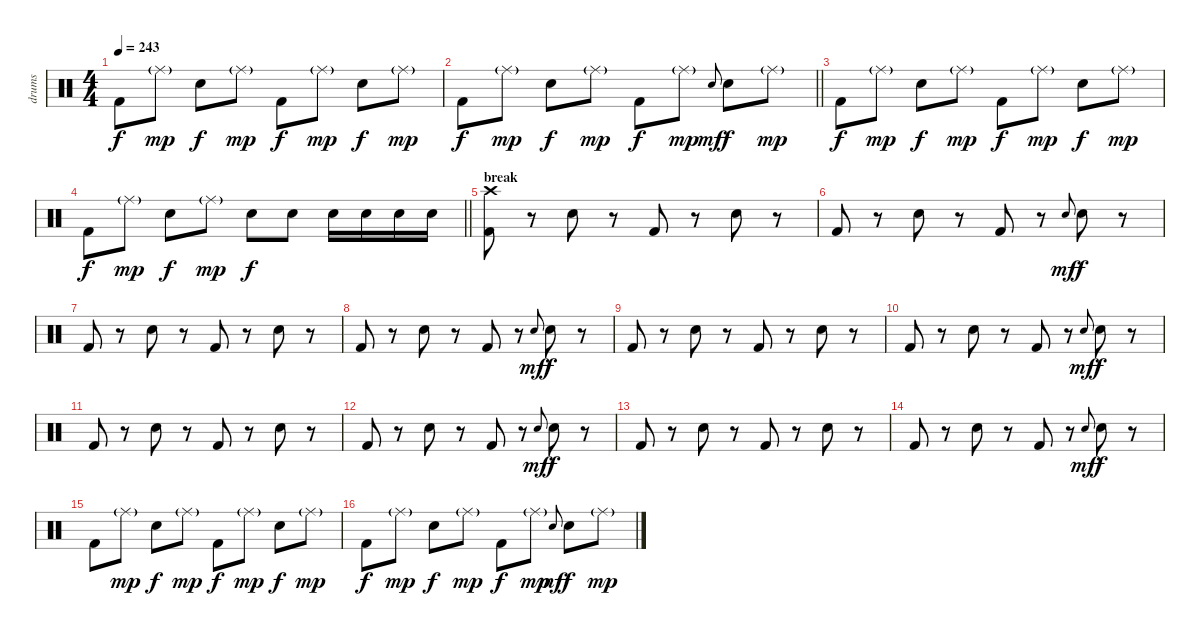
\track ("drums" "drums") {instrument percussion}
\staff {score}
\articulation defaults
\ts (4 4)
\tempo 243
\clef neutral
\ks c "Kick (hit) 2".8{dy f} "Ride (middle)"{g}.8{dy mp} "Electric Snare (hit)".8{dy f} "Ride (middle)"{g}.8{dy mp} "Kick (hit) 2".8{dy f} "Ride (middle)"{g}.8{dy mp} "Electric Snare (hit)".8{dy f} "Ride (middle)"{g}.8{dy mp}
|
\barLineRight lightlight "Kick (hit) 2".8{dy f} "Ride (middle)"{g}.8{dy mp} "Electric Snare (hit)".8{dy f} "Ride (middle)"{g}.8{dy mp} "Kick (hit) 2".8{dy f} "Ride (middle)"{g}.8{dy mp} "Electric Snare (hit)"{x}.8{gr onbeat dy mf} "Electric Snare (hit)".8{dy f} "Ride (middle)"{g}.8{dy mp}
|
"Kick (hit) 2".8{dy f} "Ride (middle)"{g}.8{dy mp} "Electric Snare (hit)".8{dy f} "Ride (middle)"{g}.8{dy mp} "Kick (hit) 2".8{dy f} "Ride (middle)"{g}.8{dy mp} "Electric Snare (hit)".8{dy f} "Ride (middle)"{g}.8{dy mp} |
\barLineRight lightlight "Kick (hit) 2".8{dy f} "Ride (middle)"{g}.8{dy mp} "Electric Snare (hit)".8{dy f} "Ride (middle)"{g}.8{dy mp} "Electric Snare (hit)".8{dy f} "Electric Snare (hit)".8 "Electric Snare (hit)".16 "Electric Snare (hit)".16 "Electric Snare (hit)".16 "Electric Snare (hit)".16
|
\section ("" "break")
("Kick (hit) 2" "Crash high (hit)").8{volume 10} r.8 "Electric Snare (hit)".8 r.8 "Kick (hit) 2".8 r.8 "Electric Snare (hit)".8 r.8 |
"Kick (hit) 2".8 r.8 "Electric Snare (hit)".8 r.8 "Kick (hit) 2".8 r.8 "Electric Snare (hit)"{x}.8{gr onbeat dy mf} "Electric Snare (hit)".8{dy f} r.8 |
"Kick (hit) 2".8 r.8 "Electric Snare (hit)".8 r.8 "Kick (hit) 2".8 r.8 "Electric Snare (hit)".8 r.8 |
"Kick (hit) 2".8 r.8 "Electric Snare (hit)".8 r.8 "Kick (hit) 2".8 r.8 "Electric Snare (hit)"{x}.8{gr onbeat dy mf} "Electric Snare (hit)".8{dy f} r.8 |
"Kick (hit) 2".8 r.8 "Electric Snare (hit)".8 r.8 "Kick (hit) 2".8 r.8 "Electric Snare (hit)".8 r.8 |
"Kick (hit) 2".8 r.8 "Electric Snare (hit)".8 r.8 "Kick (hit) 2".8 r.8 "Electric Snare (hit)"{x}.8{gr onbeat dy mf} "Electric Snare (hit)".8{dy f} r.8 |
"Kick (hit) 2".8 r.8 "Electric Snare (hit)".8 r.8 "Kick (hit) 2".8 r.8 "Electric Snare (hit)".8 r.8 |
"Kick (hit) 2".8 r.8 "Electric Snare (hit)".8 r.8 "Kick (hit) 2".8 r.8 "Electric Snare (hit)"{x}.8{gr onbeat dy mf} "Electric Snare (hit)".8{dy f} r.8 |
"Kick (hit) 2".8 r.8 "Electric Snare (hit)".8 r.8 "Kick (hit) 2".8 r.8 "Electric Snare (hit)".8 r.8 |
"Kick (hit) 2".8 r.8 "Electric Snare (hit)".8 r.8 "Kick (hit) 2".8 r.8 "Electric Snare (hit)"{x}.8{gr onbeat dy mf} "Electric Snare (hit)".8{dy f} r.8 |
"Kick (hit) 2".8 "Ride (middle)"{g}.8{dy mp} "Electric Snare (hit)".8{dy f} "Ride (middle)"{g}.8{dy mp} "Kick (hit) 2".8{dy f} "Ride (middle)"{g}.8{dy mp} "Electric Snare (hit)".8{dy f} "Ride (middle)"{g}.8{dy mp} |
"Kick (hit) 2".8{dy f} "Ride (middle)"{g}.8{dy mp} "Electric Snare (hit)".8{dy f} "Ride (middle)"{g}.8{dy mp} "Kick (hit) 2".8{dy f} "Ride (middle)"{g}.8{dy mp} "Electric Snare (hit)"{x}.8{gr onbeat dy mf} "Electric Snare (hit)".8{dy f} "Ride (middle)"{g}.8{dy mp}
